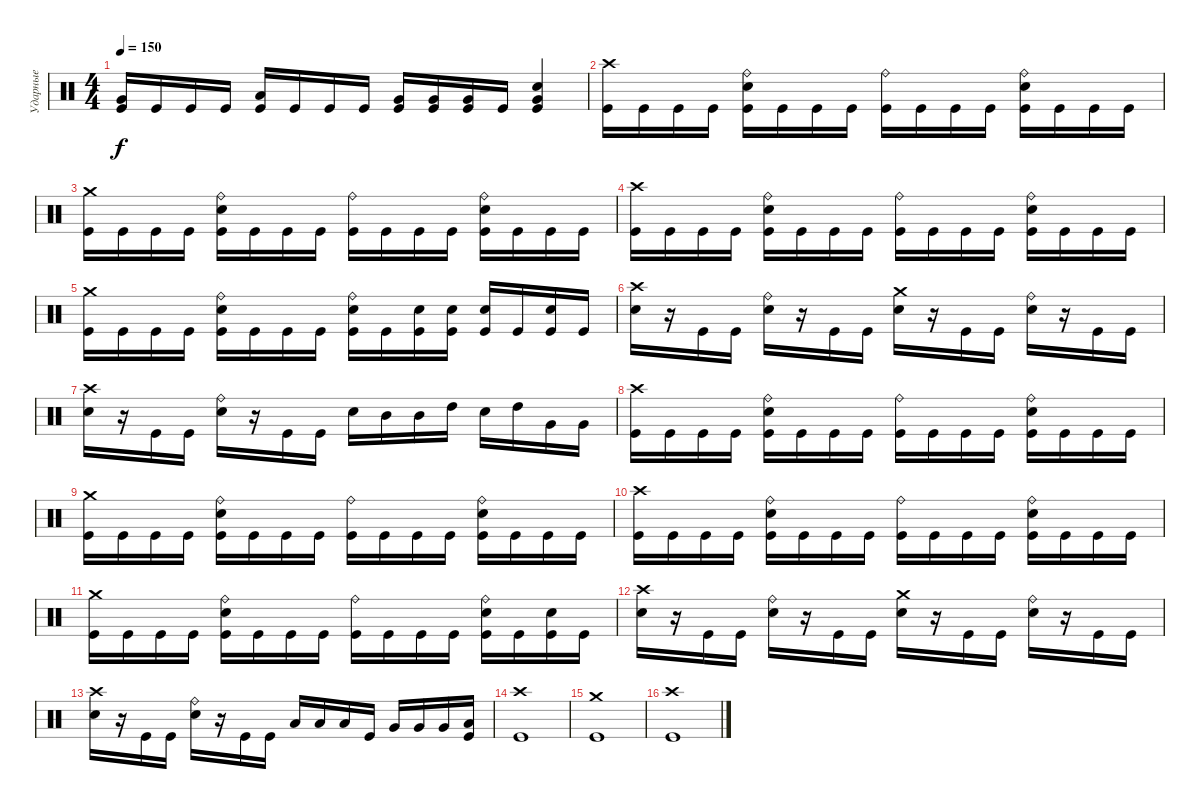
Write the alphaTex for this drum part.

\track ("Ударные" "Ударные") {instrument percussion}
\staff {score}
\articulation defaults
\ts (4 4)
\tempo 150
\clef neutral
\ks c
("Very Low Tom (hit)" "Kick (hit)").16{dy f} "Kick (hit)".16 "Kick (hit)".16 "Kick (hit)".16 ("Low Tom (hit)" "Kick (hit)").16 "Kick (hit)".16 "Kick (hit)".16 "Kick (hit)".16 ("Very Low Tom (hit)" "Kick (hit)").16 ("Very Low Tom (hit)" "Kick (hit)").16 ("Very Low Tom (hit)" "Kick (hit)").16 "Kick (hit)".16 ("Very Low Tom (hit)" "Electric Snare (hit)" "Kick (hit)").4 |
("Crash high (hit)" "Kick (hit)").16 "Kick (hit)".16 "Kick (hit)".16 "Kick (hit)".16 ("Ride (bell)" "Electric Snare (hit)" "Kick (hit)").16 "Kick (hit)".16 "Kick (hit)".16 "Kick (hit)".16 ("Ride (bell)" "Kick (hit)").16 "Kick (hit)".16 "Kick (hit)".16 "Kick (hit)".16 ("Ride (bell)" "Electric Snare (hit)" "Kick (hit)").16 "Kick (hit)".16 "Kick (hit)".16 "Kick (hit)".16 |
("Crash medium (hit)" "Kick (hit)").16 "Kick (hit)".16 "Kick (hit)".16 "Kick (hit)".16 ("Ride (bell)" "Electric Snare (hit)" "Kick (hit)").16 "Kick (hit)".16 "Kick (hit)".16 "Kick (hit)".16 ("Ride (bell)" "Kick (hit)").16 "Kick (hit)".16 "Kick (hit)".16 "Kick (hit)".16 ("Ride (bell)" "Electric Snare (hit)" "Kick (hit)").16 "Kick (hit)".16 "Kick (hit)".16 "Kick (hit)".16 |
("Crash high (hit)" "Kick (hit)").16 "Kick (hit)".16 "Kick (hit)".16 "Kick (hit)".16 ("Ride (bell)" "Electric Snare (hit)" "Kick (hit)").16 "Kick (hit)".16 "Kick (hit)".16 "Kick (hit)".16 ("Ride (bell)" "Kick (hit)").16 "Kick (hit)".16 "Kick (hit)".16 "Kick (hit)".16 ("Ride (bell)" "Electric Snare (hit)" "Kick (hit)").16 "Kick (hit)".16 "Kick (hit)".16 "Kick (hit)".16 |
("Crash medium (hit)" "Kick (hit)").16 "Kick (hit)".16 "Kick (hit)".16 "Kick (hit)".16 ("Ride (bell)" "Electric Snare (hit)" "Kick (hit)").16 "Kick (hit)".16 "Kick (hit)".16 "Kick (hit)".16 ("Ride (bell)" "Electric Snare (hit)" "Kick (hit)").16 "Kick (hit)".16 ("Electric Snare (hit)" "Kick (hit)").16 ("Electric Snare (hit)" "Kick (hit)").16 ("Electric Snare (hit)" "Kick (hit)").16 "Kick (hit)".16 ("Electric Snare (hit)" "Kick (hit)").16 "Kick (hit)".16 |
("Crash high (hit)" "Electric Snare (hit)").16 r.16 "Kick (hit)".16 "Kick (hit)".16 ("Ride (bell)" "Electric Snare (hit)").16 r.16 "Kick (hit)".16 "Kick (hit)".16 ("Crash medium (hit)" "Electric Snare (hit)").16 r.16 "Kick (hit)".16 "Kick (hit)".16 ("Ride (bell)" "Electric Snare (hit)").16 r.16 "Kick (hit)".16 "Kick (hit)".16 |
("Crash high (hit)" "Electric Snare (hit)").16 r.16 "Kick (hit)".16 "Kick (hit)".16 ("Ride (bell)" "Electric Snare (hit)").16 r.16 "Kick (hit)".16 "Kick (hit)".16 "Electric Snare (hit)".16 "Mid Tom (hit)".16 "Mid Tom (hit)".16 "High Tom (hit)".16 "Electric Snare (hit)".16 "High Tom (hit)".16 "Very Low Tom (hit)".16 "Very Low Tom (hit)".16 |
("Crash high (hit)" "Kick (hit)").16 "Kick (hit)".16 "Kick (hit)".16 "Kick (hit)".16 ("Ride (bell)" "Electric Snare (hit)" "Kick (hit)").16 "Kick (hit)".16 "Kick (hit)".16 "Kick (hit)".16 ("Ride (bell)" "Kick (hit)").16 "Kick (hit)".16 "Kick (hit)".16 "Kick (hit)".16 ("Ride (bell)" "Electric Snare (hit)" "Kick (hit)").16 "Kick (hit)".16 "Kick (hit)".16 "Kick (hit)".16 |
("Crash medium (hit)" "Kick (hit)").16 "Kick (hit)".16 "Kick (hit)".16 "Kick (hit)".16 ("Ride (bell)" "Electric Snare (hit)" "Kick (hit)").16 "Kick (hit)".16 "Kick (hit)".16 "Kick (hit)".16 ("Ride (bell)" "Kick (hit)").16 "Kick (hit)".16 "Kick (hit)".16 "Kick (hit)".16 ("Ride (bell)" "Electric Snare (hit)" "Kick (hit)").16 "Kick (hit)".16 "Kick (hit)".16 "Kick (hit)".16 |
("Crash high (hit)" "Kick (hit)").16 "Kick (hit)".16 "Kick (hit)".16 "Kick (hit)".16 ("Ride (bell)" "Electric Snare (hit)" "Kick (hit)").16 "Kick (hit)".16 "Kick (hit)".16 "Kick (hit)".16 ("Ride (bell)" "Kick (hit)").16 "Kick (hit)".16 "Kick (hit)".16 "Kick (hit)".16 ("Ride (bell)" "Electric Snare (hit)" "Kick (hit)").16 "Kick (hit)".16 "Kick (hit)".16 "Kick (hit)".16 |
("Crash medium (hit)" "Kick (hit)").16 "Kick (hit)".16 "Kick (hit)".16 "Kick (hit)".16 ("Ride (bell)" "Electric Snare (hit)" "Kick (hit)").16 "Kick (hit)".16 "Kick (hit)".16 "Kick (hit)".16 ("Ride (bell)" "Kick (hit)").16 "Kick (hit)".16 "Kick (hit)".16 "Kick (hit)".16 ("Ride (bell)" "Electric Snare (hit)" "Kick (hit)").16 "Kick (hit)".16 ("Electric Snare (hit)" "Kick (hit)").16 "Kick (hit)".16 |
("Crash high (hit)" "Electric Snare (hit)").16 r.16 "Kick (hit)".16 "Kick (hit)".16 ("Ride (bell)" "Electric Snare (hit)").16 r.16 "Kick (hit)".16 "Kick (hit)".16 ("Crash medium (hit)" "Electric Snare (hit)").16 r.16 "Kick (hit)".16 "Kick (hit)".16 ("Ride (bell)" "Electric Snare (hit)").16 r.16 "Kick (hit)".16 "Kick (hit)".16 |
("Crash high (hit)" "Electric Snare (hit)").16 r.16 "Kick (hit)".16 "Kick (hit)".16 ("Ride (bell)" "Electric Snare (hit)").16 r.16 "Kick (hit)".16 "Kick (hit)".16 "Low Tom (hit)".16 "Low Tom (hit)".16 "Low Tom (hit)".16 "Kick (hit)".16 "Very Low Tom (hit)".16 "Very Low Tom (hit)".16 "Very Low Tom (hit)".16 ("Low Tom (hit)" "Kick (hit)").16 |
("Crash high (hit)" "Kick (hit)").1 |
("Crash medium (hit)" "Kick (hit)").1 |
("Crash high (hit)" "Kick (hit)").1
